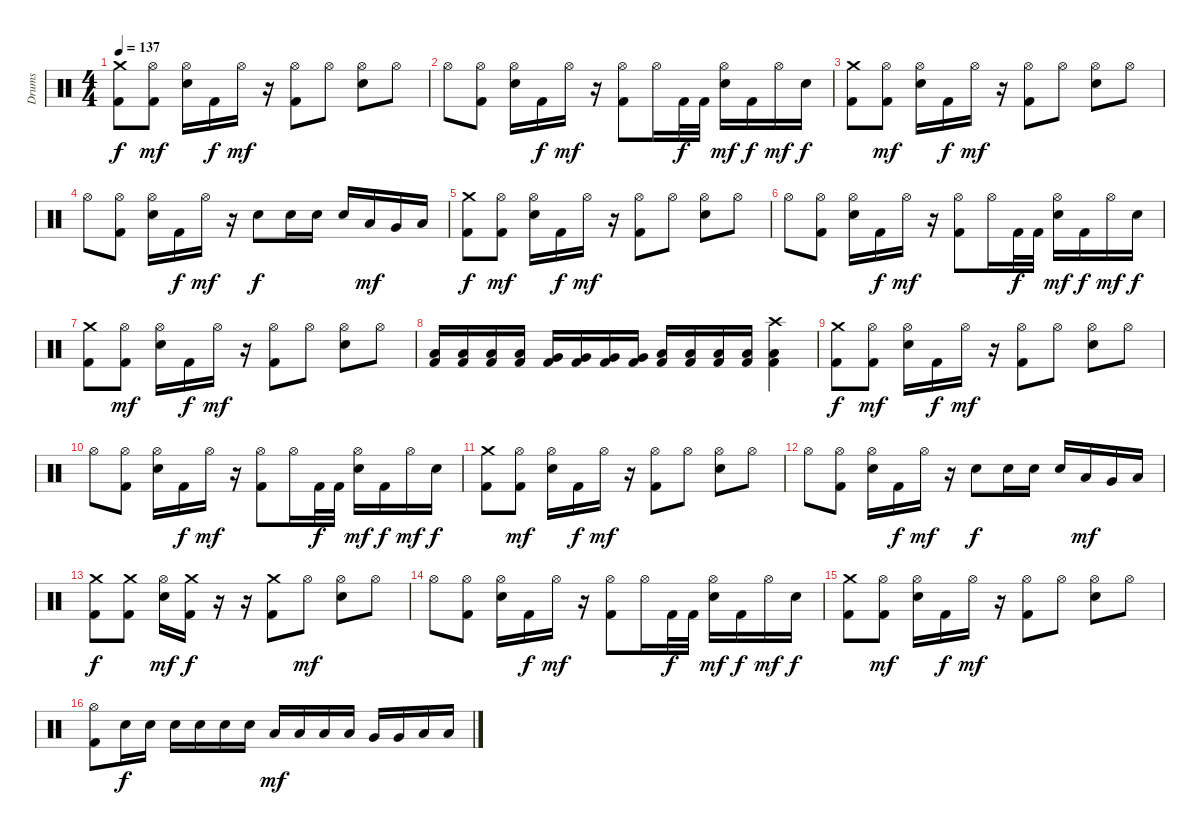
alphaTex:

\track ("Drums" "Drums") {instrument percussion}
\staff {score}
\articulation defaults
\ts (4 4)
\tempo 137
\clef neutral
\ks c
("Crash medium (hit)" "Kick (hit) 2").8{dy f} ("Hi-Hat (open)" "Kick (hit) 2").8{dy mf} ("Hi-Hat (open)" "Snare (hit) 2").16 "Kick (hit) 2".16{dy f} "Hi-Hat (open)".16{dy mf} r.16 ("Hi-Hat (open)" "Kick (hit) 2").8 "Hi-Hat (open)".8 ("Hi-Hat (open)" "Snare (hit) 2").8 "Hi-Hat (open)".8 |
"Hi-Hat (open)".8 ("Hi-Hat (open)" "Kick (hit) 2").8 ("Hi-Hat (open)" "Snare (hit) 2").16 "Kick (hit) 2".16{dy f} "Hi-Hat (open)".16{dy mf} r.16 ("Hi-Hat (open)" "Kick (hit) 2").8 "Hi-Hat (open)".16 "Kick (hit) 2".32{dy f} "Kick (hit) 2".32 ("Hi-Hat (open)" "Snare (hit) 2").16{dy mf} "Kick (hit) 2".16{dy f} "Hi-Hat (open)".16{dy mf} "Snare (hit) 2".16{dy f} |
("Crash medium (hit)" "Kick (hit) 2").8 ("Hi-Hat (open)" "Kick (hit) 2").8{dy mf} ("Hi-Hat (open)" "Snare (hit) 2").16 "Kick (hit) 2".16{dy f} "Hi-Hat (open)".16{dy mf} r.16 ("Hi-Hat (open)" "Kick (hit) 2").8 "Hi-Hat (open)".8 ("Hi-Hat (open)" "Snare (hit) 2").8 "Hi-Hat (open)".8 |
"Hi-Hat (open)".8 ("Hi-Hat (open)" "Kick (hit) 2").8 ("Hi-Hat (open)" "Snare (hit) 2").16 "Kick (hit) 2".16{dy f} "Hi-Hat (open)".16{dy mf} r.16 "Snare (hit) 2".8{dy f} "Snare (hit) 2".16 "Snare (hit) 2".16 "Snare (hit) 2".16 "Low Tom (hit)".16{dy mf} "Very Low Tom (hit)".16 "Low Floor Tom (hit)".16 |
("Crash medium (hit)" "Kick (hit) 2").8{dy f} ("Hi-Hat (open)" "Kick (hit) 2").8{dy mf} ("Hi-Hat (open)" "Snare (hit) 2").16 "Kick (hit) 2".16{dy f} "Hi-Hat (open)".16{dy mf} r.16 ("Hi-Hat (open)" "Kick (hit) 2").8 "Hi-Hat (open)".8 ("Hi-Hat (open)" "Snare (hit) 2").8 "Hi-Hat (open)".8 |
"Hi-Hat (open)".8 ("Hi-Hat (open)" "Kick (hit) 2").8 ("Hi-Hat (open)" "Snare (hit) 2").16 "Kick (hit) 2".16{dy f} "Hi-Hat (open)".16{dy mf} r.16 ("Hi-Hat (open)" "Kick (hit) 2").8 "Hi-Hat (open)".16 "Kick (hit) 2".32{dy f} "Kick (hit) 2".32 ("Hi-Hat (open)" "Snare (hit) 2").16{dy mf} "Kick (hit) 2".16{dy f} "Hi-Hat (open)".16{dy mf} "Snare (hit) 2".16{dy f} |
("Crash medium (hit)" "Kick (hit) 2").8 ("Hi-Hat (open)" "Kick (hit) 2").8{dy mf} ("Hi-Hat (open)" "Snare (hit) 2").16 "Kick (hit) 2".16{dy f} "Hi-Hat (open)".16{dy mf} r.16 ("Hi-Hat (open)" "Kick (hit) 2").8 "Hi-Hat (open)".8 ("Hi-Hat (open)" "Snare (hit) 2").8 "Hi-Hat (open)".8 |
("Low Tom (hit)" "Kick (hit) 2").16 ("Low Tom (hit)" "Kick (hit) 2").16 ("Low Tom (hit)" "Kick (hit) 2").16 ("Low Tom (hit)" "Kick (hit) 2").16 ("Very Low Tom (hit)" "Kick (hit) 2").16 ("Very Low Tom (hit)" "Kick (hit) 2").16 ("Very Low Tom (hit)" "Kick (hit) 2").16 ("Very Low Tom (hit)" "Kick (hit) 2").16 ("Low Floor Tom (hit)" "Kick (hit) 2").16 ("Low Floor Tom (hit)" "Kick (hit) 2").16 ("Low Floor Tom (hit)" "Kick (hit) 2").16 ("Low Floor Tom (hit)" "Kick (hit) 2").16 ("Crash high (hit)" "Low Floor Tom (hit)" "Kick (hit) 2").4 |
("Crash medium (hit)" "Kick (hit) 2").8{dy f} ("Hi-Hat (open)" "Kick (hit) 2").8{dy mf} ("Hi-Hat (open)" "Snare (hit) 2").16 "Kick (hit) 2".16{dy f} "Hi-Hat (open)".16{dy mf} r.16 ("Hi-Hat (open)" "Kick (hit) 2").8 "Hi-Hat (open)".8 ("Hi-Hat (open)" "Snare (hit) 2").8 "Hi-Hat (open)".8 |
"Hi-Hat (open)".8 ("Hi-Hat (open)" "Kick (hit) 2").8 ("Hi-Hat (open)" "Snare (hit) 2").16 "Kick (hit) 2".16{dy f} "Hi-Hat (open)".16{dy mf} r.16 ("Hi-Hat (open)" "Kick (hit) 2").8 "Hi-Hat (open)".16 "Kick (hit) 2".32{dy f} "Kick (hit) 2".32 ("Hi-Hat (open)" "Snare (hit) 2").16{dy mf} "Kick (hit) 2".16{dy f} "Hi-Hat (open)".16{dy mf} "Snare (hit) 2".16{dy f} |
("Crash medium (hit)" "Kick (hit) 2").8 ("Hi-Hat (open)" "Kick (hit) 2").8{dy mf} ("Hi-Hat (open)" "Snare (hit) 2").16 "Kick (hit) 2".16{dy f} "Hi-Hat (open)".16{dy mf} r.16 ("Hi-Hat (open)" "Kick (hit) 2").8 "Hi-Hat (open)".8 ("Hi-Hat (open)" "Snare (hit) 2").8 "Hi-Hat (open)".8 |
"Hi-Hat (open)".8 ("Hi-Hat (open)" "Kick (hit) 2").8 ("Hi-Hat (open)" "Snare (hit) 2").16 "Kick (hit) 2".16{dy f} "Hi-Hat (open)".16{dy mf} r.16 "Snare (hit) 2".8{dy f} "Snare (hit) 2".16 "Snare (hit) 2".16 "Snare (hit) 2".16 "Low Tom (hit)".16{dy mf} "Very Low Tom (hit)".16 "Low Floor Tom (hit)".16 |
("Crash medium (hit)" "Kick (hit) 2").8{dy f} ("Crash medium (hit)" "Kick (hit) 2").8 ("Hi-Hat (open)" "Snare (hit) 2").16{dy mf} ("Crash medium (hit)" "Kick (hit) 2").16{dy f} r.16 r.16 ("Crash medium (hit)" "Kick (hit) 2").8 "Hi-Hat (open)".8{dy mf} ("Hi-Hat (open)" "Snare (hit) 2").8 "Hi-Hat (open)".8 |
"Hi-Hat (open)".8 ("Hi-Hat (open)" "Kick (hit) 2").8 ("Hi-Hat (open)" "Snare (hit) 2").16 "Kick (hit) 2".16{dy f} "Hi-Hat (open)".16{dy mf} r.16 ("Hi-Hat (open)" "Kick (hit) 2").8 "Hi-Hat (open)".16 "Kick (hit) 2".32{dy f} "Kick (hit) 2".32 ("Hi-Hat (open)" "Snare (hit) 2").16{dy mf} "Kick (hit) 2".16{dy f} "Hi-Hat (open)".16{dy mf} "Snare (hit) 2".16{dy f} |
("Crash medium (hit)" "Kick (hit) 2").8 ("Hi-Hat (open)" "Kick (hit) 2").8{dy mf} ("Hi-Hat (open)" "Snare (hit) 2").16 "Kick (hit) 2".16{dy f} "Hi-Hat (open)".16{dy mf} r.16 ("Hi-Hat (open)" "Kick (hit) 2").8 "Hi-Hat (open)".8 ("Hi-Hat (open)" "Snare (hit) 2").8 "Hi-Hat (open)".8 |
("Hi-Hat (open)" "Kick (hit) 2").8 "Snare (hit) 2".16{dy f} "Snare (hit) 2".16 "Snare (hit) 2".16 "Snare (hit) 2".16 "Snare (hit) 2".16 "Snare (hit) 2".16 "Low Tom (hit)".16{dy mf} "Low Tom (hit)".16 "Low Tom (hit)".16 "Low Tom (hit)".16 "Very Low Tom (hit)".16 "Very Low Tom (hit)".16 "Low Floor Tom (hit)".16 "Low Floor Tom (hit)".16
